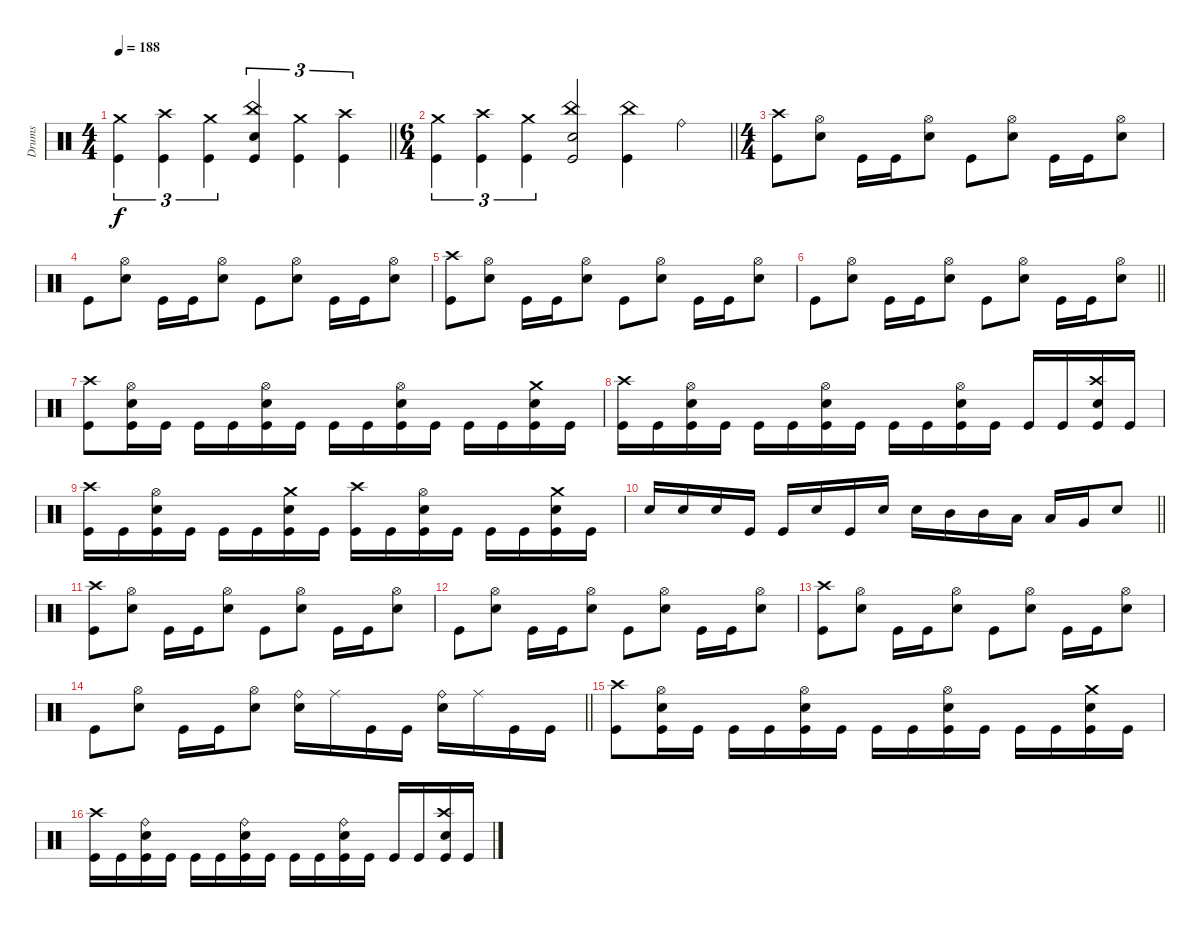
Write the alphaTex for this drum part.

\track ("Drums" "Drums") {instrument percussion}
\staff
\articulation defaults
\ts (4 4)
\tempo 188
\clef neutral
\barLineRight lightlight
\ks c
("Crash medium (hit)" "Kick (hit)").4{tu (3 2) dy f} ("Crash high (hit)" "Kick (hit)").4{tu (3 2)} ("Crash medium (hit)" "Kick (hit)").4{tu (3 2)} ("China (hit)" "Electric Snare (hit)" "Kick (hit)").4{tu (3 2)} ("Crash medium (hit)" "Kick (hit)").4{tu (3 2)} ("Crash high (hit)" "Kick (hit)").4{tu (3 2)} |
\ts (6 4)
\barLineRight lightlight
("Crash medium (hit)" "Kick (hit)").4{tu (3 2)} ("Crash high (hit)" "Kick (hit)").4{tu (3 2)} ("Crash medium (hit)" "Kick (hit)").4{tu (3 2)} ("China (hit)" "Electric Snare (hit)" "Kick (hit)").2 ("China (hit)" "Kick (hit)").4 "Ride (bell)".4 |
\ts (4 4)
\section ("" "")
("Crash high (hit)" "Kick (hit)").8 ("Hi-Hat (open)" "Electric Snare (hit)").8 "Kick (hit)".16 "Kick (hit)".16 ("Hi-Hat (open)" "Electric Snare (hit)").8 "Kick (hit)".8 ("Hi-Hat (open)" "Electric Snare (hit)").8 "Kick (hit)".16 "Kick (hit)".16 ("Hi-Hat (open)" "Electric Snare (hit)").8 |
"Kick (hit)".8 ("Hi-Hat (open)" "Electric Snare (hit)").8 "Kick (hit)".16 "Kick (hit)".16 ("Hi-Hat (open)" "Electric Snare (hit)").8 "Kick (hit)".8 ("Hi-Hat (open)" "Electric Snare (hit)").8 "Kick (hit)".16 "Kick (hit)".16 ("Hi-Hat (open)" "Electric Snare (hit)").8 |
("Crash high (hit)" "Kick (hit)").8 ("Hi-Hat (open)" "Electric Snare (hit)").8 "Kick (hit)".16 "Kick (hit)".16 ("Hi-Hat (open)" "Electric Snare (hit)").8 "Kick (hit)".8 ("Hi-Hat (open)" "Electric Snare (hit)").8 "Kick (hit)".16 "Kick (hit)".16 ("Hi-Hat (open)" "Electric Snare (hit)").8 |
\barLineRight lightlight "Kick (hit)".8
("Hi-Hat (open)" "Electric Snare (hit)").8 "Kick (hit)".16 "Kick (hit)".16 ("Hi-Hat (open)" "Electric Snare (hit)").8 "Kick (hit)".8 ("Hi-Hat (open)" "Electric Snare (hit)").8 "Kick (hit)".16 "Kick (hit)".16 ("Hi-Hat (open)" "Electric Snare (hit)").8 |
("Crash high (hit)" "Kick (hit)").8 ("Hi-Hat (open)" "Electric Snare (hit)" "Kick (hit)").16 "Kick (hit)".16 "Kick (hit)".16 "Kick (hit)".16 ("Hi-Hat (open)" "Electric Snare (hit)" "Kick (hit)").16 "Kick (hit)".16 "Kick (hit)".16 "Kick (hit)".16 ("Hi-Hat (open)" "Electric Snare (hit)" "Kick (hit)").16 "Kick (hit)".16 "Kick (hit)".16 "Kick (hit)".16 ("Crash medium (hit)" "Electric Snare (hit)" "Kick (hit)").16 "Kick (hit)".16 |
("Crash high (hit)" "Kick (hit)").16 "Kick (hit)".16 ("Hi-Hat (open)" "Electric Snare (hit)" "Kick (hit)").16 "Kick (hit)".16 "Kick (hit)".16 "Kick (hit)".16 ("Hi-Hat (open)" "Electric Snare (hit)" "Kick (hit)").16 "Kick (hit)".16 "Kick (hit)".16 "Kick (hit)".16 ("Hi-Hat (open)" "Electric Snare (hit)" "Kick (hit)").16 "Kick (hit)".16 "Kick (hit)".16 "Kick (hit)".16 ("Crash high (hit)" "Electric Snare (hit)" "Kick (hit)").16 "Kick (hit)".16 |
("Crash high (hit)" "Kick (hit)").16 "Kick (hit)".16 ("Hi-Hat (open)" "Electric Snare (hit)" "Kick (hit)").16 "Kick (hit)".16 "Kick (hit)".16 "Kick (hit)".16 ("Crash medium (hit)" "Electric Snare (hit)" "Kick (hit)").16 "Kick (hit)".16 ("Crash high (hit)" "Kick (hit)").16 "Kick (hit)".16 ("Hi-Hat (open)" "Electric Snare (hit)" "Kick (hit)").16 "Kick (hit)".16 "Kick (hit)".16 "Kick (hit)".16 ("Crash medium (hit)" "Electric Snare (hit)" "Kick (hit)").16 "Kick (hit)".16 |
\barLineRight lightlight "Electric Snare (hit)".16 "Electric Snare (hit)".16 "Electric Snare (hit)".16 "Kick (hit)".16 "Kick (hit)".16 "Electric Snare (hit)".16 "Kick (hit)".16 "Electric Snare (hit)".16 "Electric Snare (hit)".16 "Mid Tom (hit)".16 "Mid Tom (hit)".16 "Low Tom (hit)".16 "Low Tom (hit)".16 "Very Low Tom (hit)".16 "Electric Snare (hit)".8
|
("Crash high (hit)" "Kick (hit)").8 ("Hi-Hat (open)" "Electric Snare (hit)").8 "Kick (hit)".16 "Kick (hit)".16 ("Hi-Hat (open)" "Electric Snare (hit)").8 "Kick (hit)".8 ("Hi-Hat (open)" "Electric Snare (hit)").8 "Kick (hit)".16 "Kick (hit)".16 ("Hi-Hat (open)" "Electric Snare (hit)").8 |
"Kick (hit)".8 ("Hi-Hat (open)" "Electric Snare (hit)").8 "Kick (hit)".16 "Kick (hit)".16 ("Hi-Hat (open)" "Electric Snare (hit)").8 "Kick (hit)".8 ("Hi-Hat (open)" "Electric Snare (hit)").8 "Kick (hit)".16 "Kick (hit)".16 ("Hi-Hat (open)" "Electric Snare (hit)").8 |
("Crash high (hit)" "Kick (hit)").8 ("Hi-Hat (open)" "Electric Snare (hit)").8 "Kick (hit)".16 "Kick (hit)".16 ("Hi-Hat (open)" "Electric Snare (hit)").8 "Kick (hit)".8 ("Hi-Hat (open)" "Electric Snare (hit)").8 "Kick (hit)".16 "Kick (hit)".16 ("Hi-Hat (open)" "Electric Snare (hit)").8 |
\barLineRight lightlight "Kick (hit)".8
("Hi-Hat (open)" "Electric Snare (hit)").8 "Kick (hit)".16 "Kick (hit)".16 ("Hi-Hat (open)" "Electric Snare (hit)").8 ("Ride (bell)" "Electric Snare (hit)").16 "Ride (middle)".16 "Kick (hit)".16 "Kick (hit)".16 ("Ride (bell)" "Electric Snare (hit)").16 "Ride (middle)".16 "Kick (hit)".16 "Kick (hit)".16 |
("Crash high (hit)" "Kick (hit)").8 ("Hi-Hat (open)" "Electric Snare (hit)" "Kick (hit)").16 "Kick (hit)".16 "Kick (hit)".16 "Kick (hit)".16 ("Hi-Hat (open)" "Electric Snare (hit)" "Kick (hit)").16 "Kick (hit)".16 "Kick (hit)".16 "Kick (hit)".16 ("Hi-Hat (open)" "Electric Snare (hit)" "Kick (hit)").16 "Kick (hit)".16 "Kick (hit)".16 "Kick (hit)".16 ("Crash medium (hit)" "Electric Snare (hit)" "Kick (hit)").16 "Kick (hit)".16 |
("Crash high (hit)" "Kick (hit)").16 "Kick (hit)".16 ("Ride (bell)" "Electric Snare (hit)" "Kick (hit)").16 "Kick (hit)".16 "Kick (hit)".16 "Kick (hit)".16 ("Ride (bell)" "Electric Snare (hit)" "Kick (hit)").16 "Kick (hit)".16 "Kick (hit)".16 "Kick (hit)".16 ("Ride (bell)" "Electric Snare (hit)" "Kick (hit)").16 "Kick (hit)".16 "Kick (hit)".16 "Kick (hit)".16 ("Crash high (hit)" "Electric Snare (hit)" "Kick (hit)").16 "Kick (hit)".16
